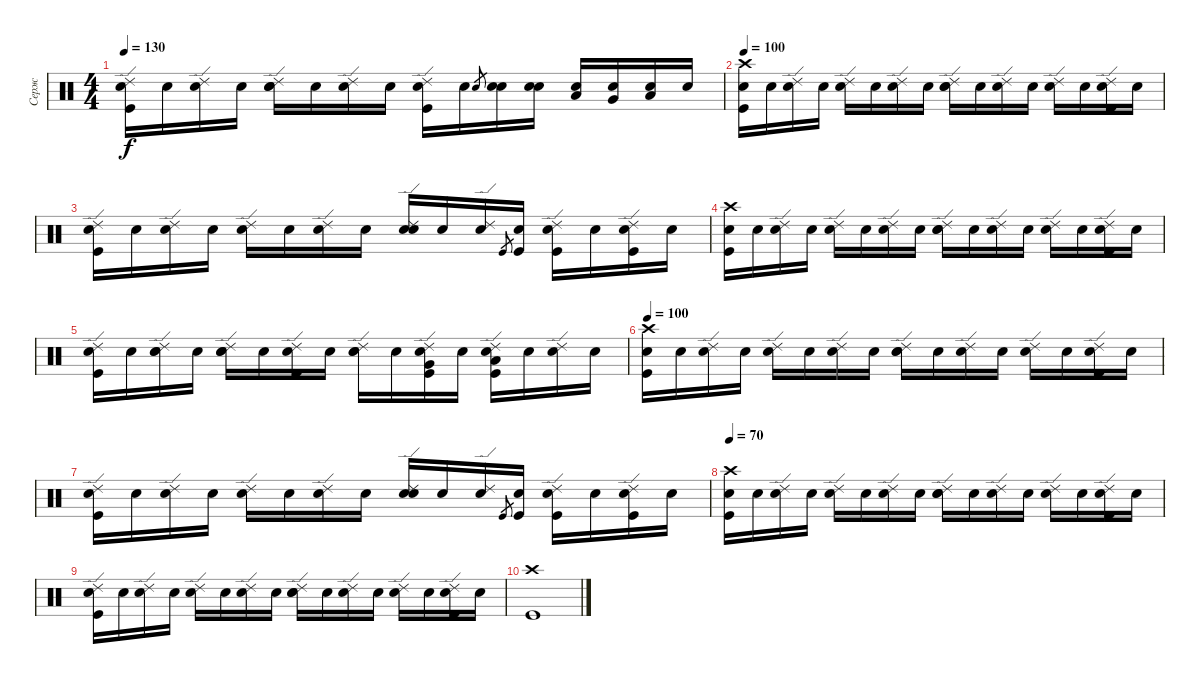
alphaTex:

\track ("Серж" "Серж") {instrument percussion}
\staff {score}
\articulation defaults
\ts (4 4)
\tempo 130
\clef neutral
\ks c
("Snare (hit)"{x} "Kick (hit)" "Ride (edge) 2").16{dy f} "Snare (hit)"{x}.16 ("Snare (hit)"{x} "Ride (edge) 2").16 "Snare (hit)"{x}.16 ("Snare (hit)"{x} "Snare (hit) 2" "Ride (edge) 2").16 "Snare (hit)"{x}.16 ("Snare (hit)"{x} "Ride (edge) 2").16 "Snare (hit)"{x}.16 ("Snare (hit)"{x} "Kick (hit)" "Ride (edge) 2").16 "Snare (hit)"{x}.16 "Snare (hit) 2".8{gr} ("Snare (hit)"{x} "Snare (hit) 2").16 ("Snare (hit)"{x} "Snare (hit) 2").16 ("Snare (hit)"{x} "Low Tom (hit)").16 ("Snare (hit)"{x} "Very Low Tom (hit)").16 ("Snare (hit)"{x} "Low Floor Tom (hit)").16 "Snare (hit)"{x}.16 |
\tempo 100
("Snare (hit)"{x} "Kick (hit)" "Crash high (hit)").16 "Snare (hit)"{x}.16 ("Snare (hit)"{x} "Ride (edge) 2").16 "Snare (hit)"{x}.16 ("Snare (hit)"{x} "Ride (edge) 2").16 "Snare (hit)"{x}.16 ("Snare (hit)"{x} "Ride (edge) 2").16 "Snare (hit)"{x}.16 ("Snare (hit)"{x} "Snare (hit) 2" "Ride (edge) 2").16 "Snare (hit)"{x}.16 ("Snare (hit)"{x} "Ride (edge) 2").16 "Snare (hit)"{x}.16 ("Snare (hit)"{x} "Ride (edge) 2").16 "Snare (hit)"{x}.16 ("Snare (hit)"{x} "Kick (hit)" "Ride (edge) 2").16 "Snare (hit)"{x}.16 |
("Snare (hit)"{x} "Kick (hit)" "Ride (edge) 2").16 "Snare (hit)"{x}.16 ("Snare (hit)"{x} "Ride (edge) 2").16 "Snare (hit)"{x}.16 ("Snare (hit)"{x} "Ride (edge) 2").16 "Snare (hit)"{x}.16 ("Snare (hit)"{x} "Ride (edge) 2").16 "Snare (hit)"{x}.16 ("Snare (hit)"{x} "Snare (hit) 2" "Ride (edge) 2").16 "Snare (hit)"{x}.16 ("Snare (hit)"{x} "Ride (edge) 2").16 "Kick (hit)".8{gr} ("Snare (hit)"{x} "Kick (hit)").16 ("Snare (hit)"{x} "Kick (hit)" "Ride (edge) 2").16 "Snare (hit)"{x}.16 ("Snare (hit)"{x} "Kick (hit)" "Ride (edge) 2").16 "Snare (hit)"{x}.16 |
("Snare (hit)"{x} "Kick (hit)" "Crash high (hit)").16 "Snare (hit)"{x}.16 ("Snare (hit)"{x} "Ride (edge) 2").16 "Snare (hit)"{x}.16 ("Snare (hit)"{x} "Ride (edge) 2").16 "Snare (hit)"{x}.16 ("Snare (hit)"{x} "Ride (edge) 2").16 "Snare (hit)"{x}.16 ("Snare (hit)"{x} "Snare (hit) 2" "Ride (edge) 2").16 "Snare (hit)"{x}.16 ("Snare (hit)"{x} "Ride (edge) 2").16 "Snare (hit)"{x}.16 ("Snare (hit)"{x} "Ride (edge) 2").16 "Snare (hit)"{x}.16 ("Snare (hit)"{x} "Kick (hit)" "Ride (edge) 2").16 "Snare (hit)"{x}.16 |
("Snare (hit)"{x} "Kick (hit)" "Ride (edge) 2").16 "Snare (hit)"{x}.16 ("Snare (hit)"{x} "Snare (hit) 2" "Ride (edge) 2").16 "Snare (hit)"{x}.16 ("Snare (hit)"{x} "Snare (hit) 2" "Ride (edge) 2").16 "Snare (hit)"{x}.16 ("Snare (hit)"{x} "Kick (hit)" "Ride (edge) 2").16 "Snare (hit)"{x}.16 ("Snare (hit)"{x} "Snare (hit) 2" "Ride (edge) 2").16 "Snare (hit)"{x}.16 ("Snare (hit)"{x} "Kick (hit)" "Very Low Tom (hit)" "Ride (edge) 2").16 "Snare (hit)"{x}.16 ("Snare (hit)"{x} "Kick (hit)" "Low Floor Tom (hit)" "Ride (edge) 2").16 "Snare (hit)"{x}.16 ("Snare (hit)"{x} "Ride (edge) 2").16 "Snare (hit)"{x}.16 |
\tempo 100
("Snare (hit)"{x} "Kick (hit)" "Crash high (hit)").16 "Snare (hit)"{x}.16 ("Snare (hit)"{x} "Ride (edge) 2").16 "Snare (hit)"{x}.16 ("Snare (hit)"{x} "Ride (edge) 2").16 "Snare (hit)"{x}.16 ("Snare (hit)"{x} "Ride (edge) 2").16 "Snare (hit)"{x}.16 ("Snare (hit)"{x} "Snare (hit) 2" "Ride (edge) 2").16 "Snare (hit)"{x}.16 ("Snare (hit)"{x} "Ride (edge) 2").16 "Snare (hit)"{x}.16 ("Snare (hit)"{x} "Ride (edge) 2").16 "Snare (hit)"{x}.16 ("Snare (hit)"{x} "Kick (hit)" "Ride (edge) 2").16 "Snare (hit)"{x}.16 |
("Snare (hit)"{x} "Kick (hit)" "Ride (edge) 2").16 "Snare (hit)"{x}.16 ("Snare (hit)"{x} "Ride (edge) 2").16 "Snare (hit)"{x}.16 ("Snare (hit)"{x} "Ride (edge) 2").16 "Snare (hit)"{x}.16 ("Snare (hit)"{x} "Ride (edge) 2").16 "Snare (hit)"{x}.16 ("Snare (hit)"{x} "Snare (hit) 2" "Ride (edge) 2").16 "Snare (hit)"{x}.16 ("Snare (hit)"{x} "Ride (edge) 2").16 "Kick (hit)".8{gr} ("Snare (hit)"{x} "Kick (hit)").16 ("Snare (hit)"{x} "Kick (hit)" "Ride (edge) 2").16 "Snare (hit)"{x}.16 ("Snare (hit)"{x} "Kick (hit)" "Ride (edge) 2").16 "Snare (hit)"{x}.16 |
\tempo 70
("Snare (hit)"{x} "Kick (hit)" "Crash high (hit)").16 "Snare (hit)"{x}.16 ("Snare (hit)"{x} "Ride (edge) 2").16 "Snare (hit)"{x}.16 ("Snare (hit)"{x} "Ride (edge) 2").16 "Snare (hit)"{x}.16 ("Snare (hit)"{x} "Ride (edge) 2").16 "Snare (hit)"{x}.16 ("Snare (hit)"{x} "Snare (hit) 2" "Ride (edge) 2").16 "Snare (hit)"{x}.16 ("Snare (hit)"{x} "Ride (edge) 2").16 "Snare (hit)"{x}.16 ("Snare (hit)"{x} "Ride (edge) 2").16 "Snare (hit)"{x}.16 ("Snare (hit)"{x} "Kick (hit)" "Ride (edge) 2").16 "Snare (hit)"{x}.16 |
("Snare (hit)"{x} "Kick (hit)" "Ride (edge) 2").16 "Snare (hit)"{x}.16 ("Snare (hit)"{x} "Ride (edge) 2").16 "Snare (hit)"{x}.16 ("Snare (hit)"{x} "Ride (edge) 2").16 "Snare (hit)"{x}.16 ("Snare (hit)"{x} "Ride (edge) 2").16 "Snare (hit)"{x}.16 ("Snare (hit)"{x} "Snare (hit) 2" "Ride (edge) 2").16 "Snare (hit)"{x}.16 ("Snare (hit)"{x} "Ride (edge) 2").16 "Snare (hit)"{x}.16 ("Snare (hit)"{x} "Ride (edge) 2").16 "Snare (hit)"{x}.16 ("Snare (hit)"{x} "Kick (hit)" "Ride (edge) 2").16 "Snare (hit)"{x}.16 |
("Crash high (hit)" "Kick (hit)").1
